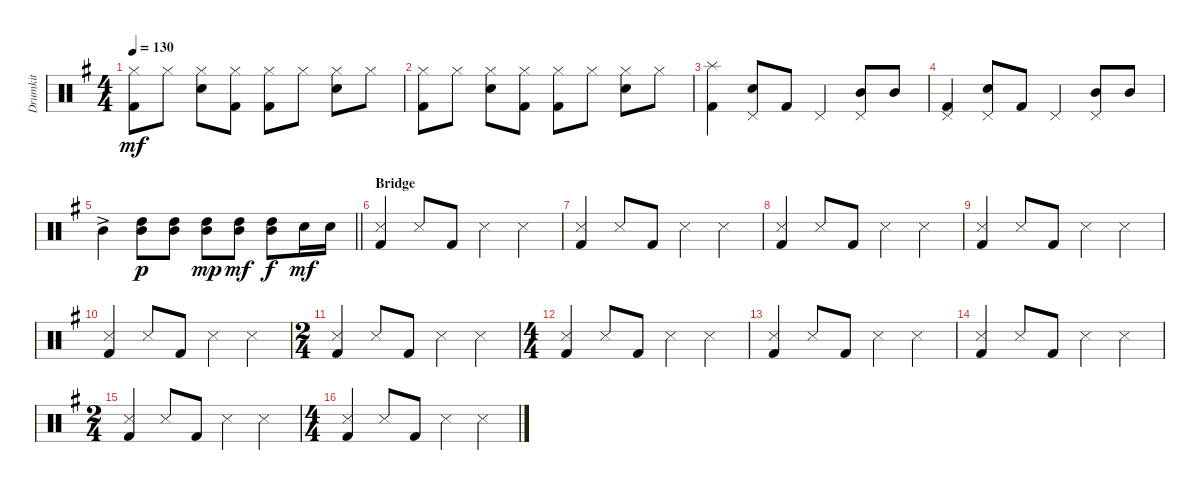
\track ("Drumkit" "Drumkit") {instrument percussion}
\staff {score}
\articulation defaults
\ts (4 4)
\tempo 130
\clef neutral
\ks g
("Hi-Hat (closed)" "Kick (hit) 2").8{dy mf} "Hi-Hat (closed)".8 ("Hi-Hat (closed)" "Snare (hit) 2").8 ("Hi-Hat (closed)" "Kick (hit) 2").8 ("Hi-Hat (closed)" "Kick (hit) 2").8 "Hi-Hat (closed)".8 ("Hi-Hat (closed)" "Snare (hit) 2").8 "Hi-Hat (closed)".8 |
("Hi-Hat (closed)" "Kick (hit) 2").8 "Hi-Hat (closed)".8 ("Hi-Hat (closed)" "Snare (hit) 2").8 ("Hi-Hat (closed)" "Kick (hit) 2").8 ("Hi-Hat (closed)" "Kick (hit) 2").8 "Hi-Hat (closed)".8 ("Hi-Hat (closed)" "Snare (hit) 2").8 "Hi-Hat (closed)".8 |
("Kick (hit) 2" "Splash (hit)").4 ("Snare (hit) 2" "Pedal Hi-Hat (hit)").8 "Kick (hit) 2".8 "Pedal Hi-Hat (hit)".4 ("Pedal Hi-Hat (hit)" "Mid Tom (hit)").8 "Mid Tom (hit)".8 |
("Pedal Hi-Hat (hit)" "Kick (hit) 2").4 ("Pedal Hi-Hat (hit)" "Snare (hit) 2").8 "Kick (hit) 2".8 "Pedal Hi-Hat (hit)".4 ("Pedal Hi-Hat (hit)" "Mid Tom (hit)").8 "Mid Tom (hit)".8 |
\barLineRight lightlight "Mid Tom (hit)"{ac}.4
("Mid Tom (hit)" "High Tom (hit)").8{dy p} ("Mid Tom (hit)" "High Tom (hit)").8 ("Mid Tom (hit)" "High Tom (hit)").8{dy mp} ("Mid Tom (hit)" "High Tom (hit)").8{dy mf} ("Mid Tom (hit)" "High Tom (hit)").8{dy f} "Snare (hit) 2".16{dy mf} "Snare (hit) 2".16 |
\section ("" "Bridge")
("Kick (hit) 2" "Snare (side stick) 3").4 "Snare (side stick) 3".8 "Kick (hit) 2".8 "Snare (side stick) 3".4 "Snare (side stick) 3".4 |
("Kick (hit) 2" "Snare (side stick) 3").4 "Snare (side stick) 3".8 "Kick (hit) 2".8 "Snare (side stick) 3".4 "Snare (side stick) 3".4 |
("Kick (hit) 2" "Snare (side stick) 3").4 "Snare (side stick) 3".8 "Kick (hit) 2".8 "Snare (side stick) 3".4 "Snare (side stick) 3".4 |
("Kick (hit) 2" "Snare (side stick) 3").4 "Snare (side stick) 3".8 "Kick (hit) 2".8 "Snare (side stick) 3".4 "Snare (side stick) 3".4 |
("Kick (hit) 2" "Snare (side stick) 3").4 "Snare (side stick) 3".8 "Kick (hit) 2".8 "Snare (side stick) 3".4 "Snare (side stick) 3".4 |
\ts (2 4)
("Kick (hit) 2" "Snare (side stick) 3").4 "Snare (side stick) 3".8 "Kick (hit) 2".8 "Snare (side stick) 3".4 "Snare (side stick) 3".4 |
\ts (4 4)
("Kick (hit) 2" "Snare (side stick) 3").4 "Snare (side stick) 3".8 "Kick (hit) 2".8 "Snare (side stick) 3".4 "Snare (side stick) 3".4 |
("Kick (hit) 2" "Snare (side stick) 3").4 "Snare (side stick) 3".8 "Kick (hit) 2".8 "Snare (side stick) 3".4 "Snare (side stick) 3".4 |
("Kick (hit) 2" "Snare (side stick) 3").4 "Snare (side stick) 3".8 "Kick (hit) 2".8 "Snare (side stick) 3".4 "Snare (side stick) 3".4 |
\ts (2 4)
("Kick (hit) 2" "Snare (side stick) 3").4 "Snare (side stick) 3".8 "Kick (hit) 2".8 "Snare (side stick) 3".4 "Snare (side stick) 3".4 |
\ts (4 4)
("Kick (hit) 2" "Snare (side stick) 3").4 "Snare (side stick) 3".8 "Kick (hit) 2".8 "Snare (side stick) 3".4 "Snare (side stick) 3".4
